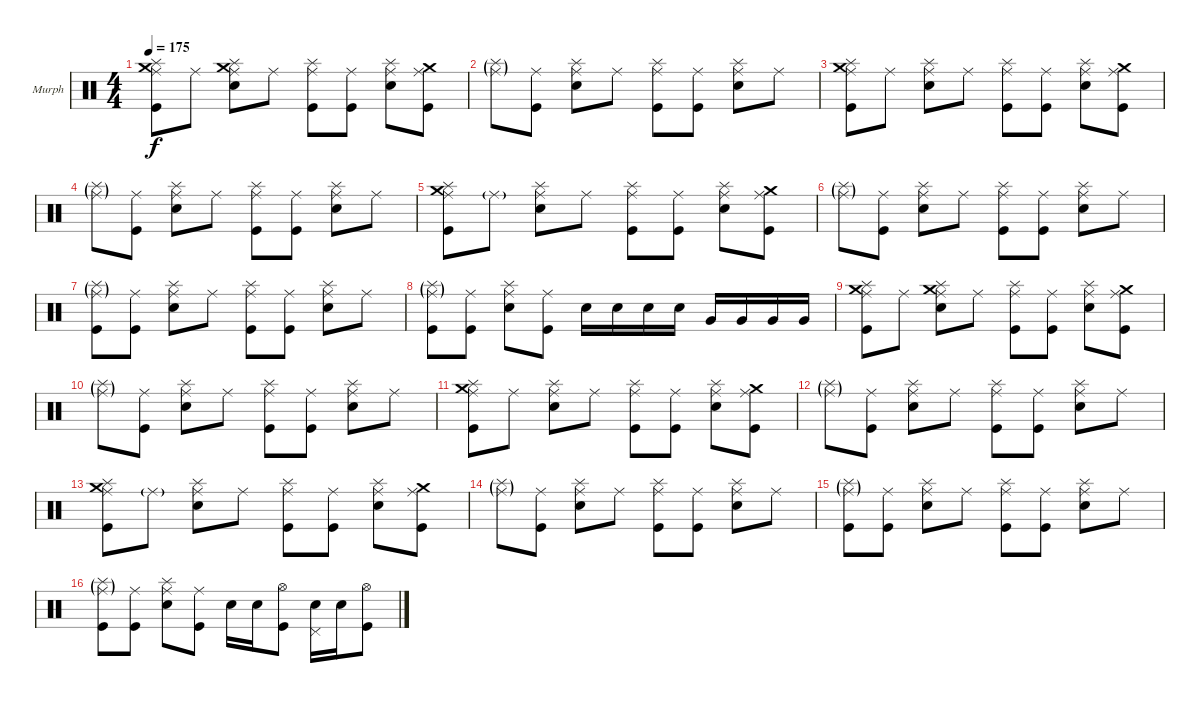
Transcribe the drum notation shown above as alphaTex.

\defaultSystemsLayout 4
\bracketExtendMode groupsimilarinstruments
\firstSystemTrackNameOrientation horizontal
\otherSystemsTrackNameOrientation horizontal
\track ("Murph" "Murph") {instrument percussion}
\staff {score}
\articulation defaults
\ts (4 4)
\tempo 175
\clef neutral
\scale
0.333333
\ks c
("Kick (hit)" "Ride (middle)" "Splash (hit)" "Crash medium (hit)").8{dy f} "Ride (middle)".8 ("Snare (hit) 2" "Ride (middle)" "Splash (hit)" "Crash medium (hit)").8 "Ride (middle)".8 ("Kick (hit)" "Ride (middle)" "Splash (hit)").8 ("Kick (hit)" "Ride (middle)").8 ("Snare (hit) 2" "Ride (middle)" "Splash (hit)").8 ("Kick (hit)" "Ride (middle)" "Crash medium (hit)").8 |
\scale
0.333333 ("Ride (middle)"{g} "Splash (hit)"{g}).8 ("Kick (hit)" "Ride (middle)").8 ("Snare (hit) 2" "Ride (middle)" "Splash (hit)").8 "Ride (middle)".8 ("Kick (hit)" "Ride (middle)" "Splash (hit)").8 ("Kick (hit)" "Ride (middle)").8 ("Snare (hit) 2" "Ride (middle)" "Splash (hit)").8 "Ride (middle)".8 |
\scale
0.333333 ("Kick (hit)" "Ride (middle)" "Splash (hit)" "Crash medium (hit)").8 "Ride (middle)".8 ("Snare (hit) 2" "Ride (middle)" "Splash (hit)").8 "Ride (middle)".8 ("Kick (hit)" "Ride (middle)" "Splash (hit)").8 ("Kick (hit)" "Ride (middle)").8 ("Snare (hit) 2" "Ride (middle)" "Splash (hit)").8 ("Kick (hit)" "Ride (middle)" "Crash medium (hit)").8 |
\scale
0.333333 ("Ride (middle)"{g} "Splash (hit)"{g}).8 ("Kick (hit)" "Ride (middle)").8 ("Snare (hit) 2" "Ride (middle)" "Splash (hit)").8 "Ride (middle)".8 ("Kick (hit)" "Ride (middle)" "Splash (hit)").8 ("Kick (hit)" "Ride (middle)").8 ("Snare (hit) 2" "Ride (middle)" "Splash (hit)").8 "Ride (middle)".8 |
\scale
0.333333 ("Kick (hit)" "Ride (middle)" "Splash (hit)" "Crash medium (hit)").8 "Ride (middle)"{g}.8 ("Snare (hit) 2" "Ride (middle)" "Splash (hit)").8 "Ride (middle)".8 ("Kick (hit)" "Ride (middle)" "Splash (hit)").8 ("Kick (hit)" "Ride (middle)").8 ("Snare (hit) 2" "Ride (middle)" "Splash (hit)").8 ("Kick (hit)" "Ride (middle)" "Crash medium (hit)").8 |
\scale
0.333333 ("Ride (middle)"{g} "Splash (hit)"{g}).8 ("Kick (hit)" "Ride (middle)").8 ("Snare (hit) 2" "Ride (middle)" "Splash (hit)").8 "Ride (middle)".8 ("Kick (hit)" "Ride (middle)" "Splash (hit)").8 ("Kick (hit)" "Ride (middle)").8 ("Snare (hit) 2" "Ride (middle)" "Splash (hit)").8 "Ride (middle)".8 |
\scale
0.333333 ("Kick (hit)" "Ride (middle)"{g} "Splash (hit)"{g}).8 ("Kick (hit)" "Ride (middle)").8 ("Snare (hit) 2" "Ride (middle)" "Splash (hit)").8 "Ride (middle)".8 ("Kick (hit)" "Ride (middle)" "Splash (hit)").8 ("Kick (hit)" "Ride (middle)").8 ("Snare (hit) 2" "Ride (middle)" "Splash (hit)").8 "Ride (middle)".8 |
\scale
0.333333 ("Kick (hit)" "Ride (middle)"{g} "Splash (hit)"{g}).8 ("Kick (hit)" "Ride (middle)").8 ("Snare (hit) 2" "Ride (middle)" "Splash (hit)").8 ("Kick (hit)" "Ride (middle)").8 "Snare (hit) 2".16 "Snare (hit) 2".16 "Snare (hit) 2".16 "Snare (hit) 2".16 "Very Low Tom (hit)".16 "Very Low Tom (hit)".16 "Very Low Tom (hit)".16 "Very Low Tom (hit)".16 |
\scale
0.333333 ("Kick (hit)" "Ride (middle)" "Splash (hit)" "Crash medium (hit)").8 "Ride (middle)".8 ("Snare (hit) 2" "Ride (middle)" "Splash (hit)" "Crash medium (hit)").8 "Ride (middle)".8 ("Kick (hit)" "Ride (middle)" "Splash (hit)").8 ("Kick (hit)" "Ride (middle)").8 ("Snare (hit) 2" "Ride (middle)" "Splash (hit)").8 ("Kick (hit)" "Ride (middle)" "Crash medium (hit)").8 |
\scale
0.333333 ("Ride (middle)"{g} "Splash (hit)"{g}).8 ("Kick (hit)" "Ride (middle)").8 ("Snare (hit) 2" "Ride (middle)" "Splash (hit)").8 "Ride (middle)".8 ("Kick (hit)" "Ride (middle)" "Splash (hit)").8 ("Kick (hit)" "Ride (middle)").8 ("Snare (hit) 2" "Ride (middle)" "Splash (hit)").8 "Ride (middle)".8 |
\scale
0.333333 ("Kick (hit)" "Ride (middle)" "Splash (hit)" "Crash medium (hit)").8 "Ride (middle)".8 ("Snare (hit) 2" "Ride (middle)" "Splash (hit)").8 "Ride (middle)".8 ("Kick (hit)" "Ride (middle)" "Splash (hit)").8 ("Kick (hit)" "Ride (middle)").8 ("Snare (hit) 2" "Ride (middle)" "Splash (hit)").8 ("Kick (hit)" "Ride (middle)" "Crash medium (hit)").8 |
\scale
0.333333 ("Ride (middle)"{g} "Splash (hit)"{g}).8 ("Kick (hit)" "Ride (middle)").8 ("Snare (hit) 2" "Ride (middle)" "Splash (hit)").8 "Ride (middle)".8 ("Kick (hit)" "Ride (middle)" "Splash (hit)").8 ("Kick (hit)" "Ride (middle)").8 ("Snare (hit) 2" "Ride (middle)" "Splash (hit)").8 "Ride (middle)".8 |
\scale
0.333333 ("Kick (hit)" "Ride (middle)" "Splash (hit)" "Crash medium (hit)").8 "Ride (middle)"{g}.8 ("Snare (hit) 2" "Ride (middle)" "Splash (hit)").8 "Ride (middle)".8 ("Kick (hit)" "Ride (middle)" "Splash (hit)").8 ("Kick (hit)" "Ride (middle)").8 ("Snare (hit) 2" "Ride (middle)" "Splash (hit)").8 ("Kick (hit)" "Ride (middle)" "Crash medium (hit)").8 |
\scale
0.333333 ("Ride (middle)"{g} "Splash (hit)"{g}).8 ("Kick (hit)" "Ride (middle)").8 ("Snare (hit) 2" "Ride (middle)" "Splash (hit)").8 "Ride (middle)".8 ("Kick (hit)" "Ride (middle)" "Splash (hit)").8 ("Kick (hit)" "Ride (middle)").8 ("Snare (hit) 2" "Ride (middle)" "Splash (hit)").8 "Ride (middle)".8 |
\scale
0.333333 ("Kick (hit)" "Ride (middle)"{g} "Splash (hit)"{g}).8 ("Kick (hit)" "Ride (middle)").8 ("Snare (hit) 2" "Ride (middle)" "Splash (hit)").8 "Ride (middle)".8 ("Kick (hit)" "Ride (middle)" "Splash (hit)").8 ("Kick (hit)" "Ride (middle)").8 ("Snare (hit) 2" "Ride (middle)" "Splash (hit)").8 "Ride (middle)".8 |
\scale
0.333333 ("Kick (hit)" "Ride (middle)"{g} "Splash (hit)"{g}).8 ("Kick (hit)" "Ride (middle)").8 ("Snare (hit) 2" "Ride (middle)" "Splash (hit)").8 ("Kick (hit)" "Ride (middle)").8 "Snare (hit) 2".16 "Snare (hit) 2".16 ("Kick (hit)" "Hi-Hat (open)").8 ("Snare (hit) 2" "Pedal Hi-Hat (hit)").16 "Snare (hit) 2".16 ("Kick (hit)" "Hi-Hat (open)").8
